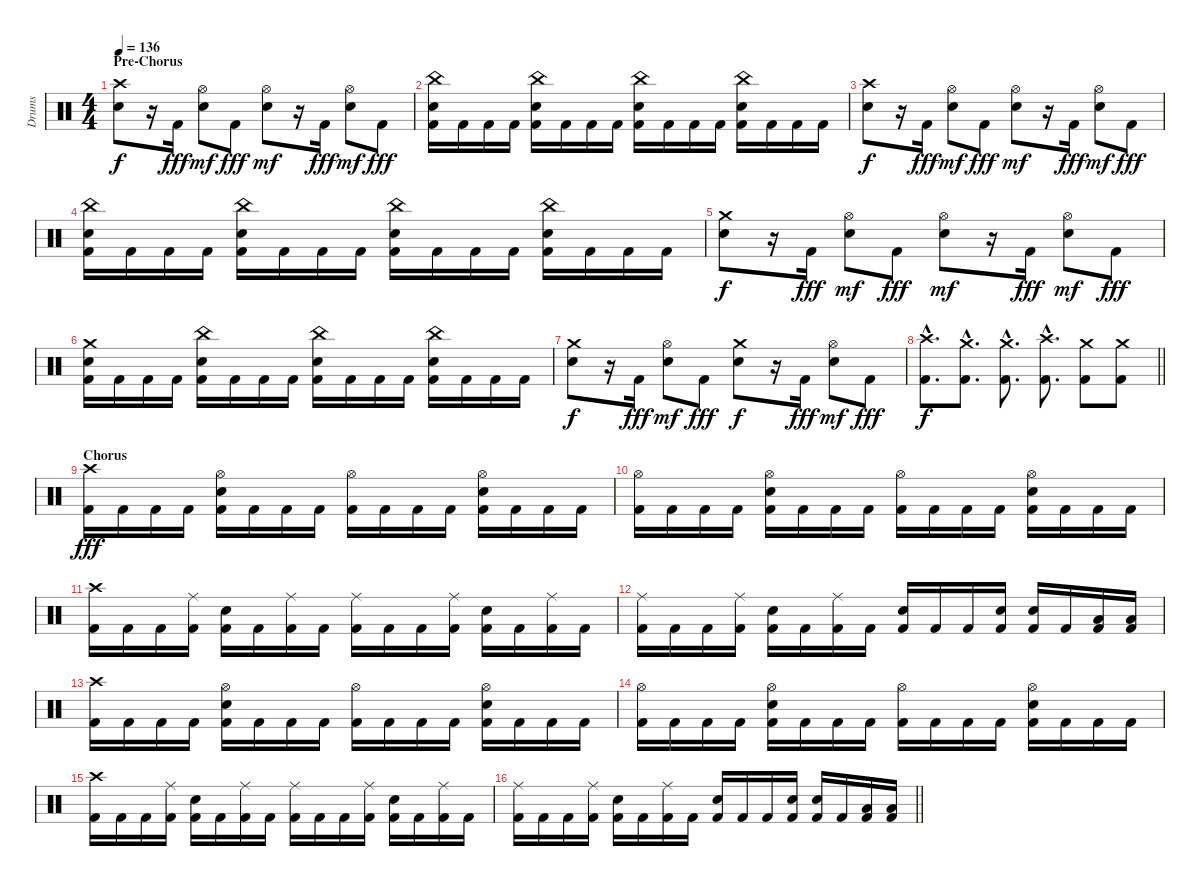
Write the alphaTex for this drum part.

\track ("Drums" "Drums") {instrument percussion}
\staff {score}
\articulation defaults
\ts (4 4)
\section ("" "Pre-Chorus")
\tempo 136
\clef neutral
\ks c
("Crash high (hit)" "Electric Snare (hit)").8{dy f} r.16 "Kick (hit) 2".16{dy fff} ("Hi-Hat (open)" "Electric Snare (hit)").8{dy mf} "Kick (hit) 2".8{dy fff} ("Hi-Hat (open)" "Electric Snare (hit)").8{dy mf} r.16 "Kick (hit) 2".16{dy fff} ("Hi-Hat (open)" "Electric Snare (hit)").8{dy mf} "Kick (hit) 2".8{dy fff} |
("China (hit)" "Electric Snare (hit)" "Kick (hit) 2").16 "Kick (hit) 2".16 "Kick (hit) 2".16 "Kick (hit) 2".16 ("China (hit)" "Electric Snare (hit)" "Kick (hit) 2").16 "Kick (hit) 2".16 "Kick (hit) 2".16 "Kick (hit) 2".16 ("China (hit)" "Electric Snare (hit)" "Kick (hit) 2").16 "Kick (hit) 2".16 "Kick (hit) 2".16 "Kick (hit) 2".16 ("China (hit)" "Electric Snare (hit)" "Kick (hit) 2").16 "Kick (hit) 2".16 "Kick (hit) 2".16 "Kick (hit) 2".16 |
("Crash high (hit)" "Electric Snare (hit)").8{dy f} r.16 "Kick (hit) 2".16{dy fff} ("Hi-Hat (open)" "Electric Snare (hit)").8{dy mf} "Kick (hit) 2".8{dy fff} ("Hi-Hat (open)" "Electric Snare (hit)").8{dy mf} r.16 "Kick (hit) 2".16{dy fff} ("Hi-Hat (open)" "Electric Snare (hit)").8{dy mf} "Kick (hit) 2".8{dy fff} |
("China (hit)" "Electric Snare (hit)" "Kick (hit) 2").16 "Kick (hit) 2".16 "Kick (hit) 2".16 "Kick (hit) 2".16 ("China (hit)" "Electric Snare (hit)" "Kick (hit) 2").16 "Kick (hit) 2".16 "Kick (hit) 2".16 "Kick (hit) 2".16 ("China (hit)" "Electric Snare (hit)" "Kick (hit) 2").16 "Kick (hit) 2".16 "Kick (hit) 2".16 "Kick (hit) 2".16 ("China (hit)" "Electric Snare (hit)" "Kick (hit) 2").16 "Kick (hit) 2".16 "Kick (hit) 2".16 "Kick (hit) 2".16 |
("Crash medium (hit)" "Electric Snare (hit)").8{dy f} r.16 "Kick (hit) 2".16{dy fff} ("Hi-Hat (open)" "Electric Snare (hit)").8{dy mf} "Kick (hit) 2".8{dy fff} ("Hi-Hat (open)" "Electric Snare (hit)").8{dy mf} r.16 "Kick (hit) 2".16{dy fff} ("Hi-Hat (open)" "Electric Snare (hit)").8{dy mf} "Kick (hit) 2".8{dy fff} |
("Crash medium (hit)" "Electric Snare (hit)" "Kick (hit) 2").16 "Kick (hit) 2".16 "Kick (hit) 2".16 "Kick (hit) 2".16 ("China (hit)" "Electric Snare (hit)" "Kick (hit) 2").16 "Kick (hit) 2".16 "Kick (hit) 2".16 "Kick (hit) 2".16 ("China (hit)" "Electric Snare (hit)" "Kick (hit) 2").16 "Kick (hit) 2".16 "Kick (hit) 2".16 "Kick (hit) 2".16 ("China (hit)" "Electric Snare (hit)" "Kick (hit) 2").16 "Kick (hit) 2".16 "Kick (hit) 2".16 "Kick (hit) 2".16 |
("Crash medium (hit)" "Electric Snare (hit)").8{dy f} r.16 "Kick (hit) 2".16{dy fff} ("Hi-Hat (open)" "Electric Snare (hit)").8{dy mf} "Kick (hit) 2".8{dy fff} ("Crash medium (hit)" "Electric Snare (hit)").8{dy f} r.16 "Kick (hit) 2".16{dy fff} ("Hi-Hat (open)" "Electric Snare (hit)").8{dy mf} "Kick (hit) 2".8{dy fff} |
\barLineRight lightlight
("Crash high (hit)"{hac} "Kick (hit) 2"{hac}).8{d dy f} ("Crash medium (hit)"{hac} "Kick (hit) 2"{hac}).8{d} ("Crash medium (hit)"{hac} "Kick (hit) 2"{hac}).8{d} ("Crash high (hit)"{hac} "Kick (hit) 2"{hac}).8{d} ("Crash medium (hit)" "Kick (hit) 2").8 ("Crash medium (hit)" "Kick (hit) 2").8 |
\section ("" "Chorus")
("Crash high (hit)" "Kick (hit) 2").16{dy fff} "Kick (hit) 2".16 "Kick (hit) 2".16 "Kick (hit) 2".16 ("Hi-Hat (open)" "Electric Snare (hit)" "Kick (hit) 2").16 "Kick (hit) 2".16 "Kick (hit) 2".16 "Kick (hit) 2".16 ("Hi-Hat (open)" "Kick (hit) 2").16 "Kick (hit) 2".16 "Kick (hit) 2".16 "Kick (hit) 2".16 ("Hi-Hat (open)" "Electric Snare (hit)" "Kick (hit) 2").16 "Kick (hit) 2".16 "Kick (hit) 2".16 "Kick (hit) 2".16 |
("Hi-Hat (open)" "Kick (hit) 2").16 "Kick (hit) 2".16 "Kick (hit) 2".16 "Kick (hit) 2".16 ("Hi-Hat (open)" "Electric Snare (hit)" "Kick (hit) 2").16 "Kick (hit) 2".16 "Kick (hit) 2".16 "Kick (hit) 2".16 ("Hi-Hat (open)" "Kick (hit) 2").16 "Kick (hit) 2".16 "Kick (hit) 2".16 "Kick (hit) 2".16 ("Hi-Hat (open)" "Electric Snare (hit)" "Kick (hit) 2").16 "Kick (hit) 2".16 "Kick (hit) 2".16 "Kick (hit) 2".16 |
("Crash high (hit)" "Kick (hit) 2").16 "Kick (hit) 2".16 "Kick (hit) 2".16 ("Ride (middle)" "Kick (hit) 2").16 ("Electric Snare (hit)" "Kick (hit) 2").16 "Kick (hit) 2".16 ("Ride (middle)" "Kick (hit) 2").16 "Kick (hit) 2".16 ("Ride (middle)" "Kick (hit) 2").16 "Kick (hit) 2".16 "Kick (hit) 2".16 ("Ride (middle)" "Kick (hit) 2").16 ("Electric Snare (hit)" "Kick (hit) 2").16 "Kick (hit) 2".16 ("Ride (middle)" "Kick (hit) 2").16 "Kick (hit) 2".16 |
("Ride (middle)" "Kick (hit) 2").16 "Kick (hit) 2".16 "Kick (hit) 2".16 ("Ride (middle)" "Kick (hit) 2").16 ("Electric Snare (hit)" "Kick (hit) 2").16 "Kick (hit) 2".16 ("Ride (middle)" "Kick (hit) 2").16 "Kick (hit) 2".16 ("Electric Snare (hit)" "Kick (hit) 2").16 "Kick (hit) 2".16 "Kick (hit) 2".16 ("Electric Snare (hit)" "Kick (hit) 2").16 ("Electric Snare (hit)" "Kick (hit) 2").16 "Kick (hit) 2".16 ("Low Tom (hit)" "Kick (hit) 2").16 ("Low Tom (hit)" "Kick (hit) 2").16 |
("Crash high (hit)" "Kick (hit) 2").16 "Kick (hit) 2".16 "Kick (hit) 2".16 "Kick (hit) 2".16 ("Hi-Hat (open)" "Electric Snare (hit)" "Kick (hit) 2").16 "Kick (hit) 2".16 "Kick (hit) 2".16 "Kick (hit) 2".16 ("Hi-Hat (open)" "Kick (hit) 2").16 "Kick (hit) 2".16 "Kick (hit) 2".16 "Kick (hit) 2".16 ("Hi-Hat (open)" "Electric Snare (hit)" "Kick (hit) 2").16 "Kick (hit) 2".16 "Kick (hit) 2".16 "Kick (hit) 2".16 |
("Hi-Hat (open)" "Kick (hit) 2").16 "Kick (hit) 2".16 "Kick (hit) 2".16 "Kick (hit) 2".16 ("Hi-Hat (open)" "Electric Snare (hit)" "Kick (hit) 2").16 "Kick (hit) 2".16 "Kick (hit) 2".16 "Kick (hit) 2".16 ("Hi-Hat (open)" "Kick (hit) 2").16 "Kick (hit) 2".16 "Kick (hit) 2".16 "Kick (hit) 2".16 ("Hi-Hat (open)" "Electric Snare (hit)" "Kick (hit) 2").16 "Kick (hit) 2".16 "Kick (hit) 2".16 "Kick (hit) 2".16 |
("Crash high (hit)" "Kick (hit) 2").16 "Kick (hit) 2".16 "Kick (hit) 2".16 ("Ride (middle)" "Kick (hit) 2").16 ("Electric Snare (hit)" "Kick (hit) 2").16 "Kick (hit) 2".16 ("Ride (middle)" "Kick (hit) 2").16 "Kick (hit) 2".16 ("Ride (middle)" "Kick (hit) 2").16 "Kick (hit) 2".16 "Kick (hit) 2".16 ("Ride (middle)" "Kick (hit) 2").16 ("Electric Snare (hit)" "Kick (hit) 2").16 "Kick (hit) 2".16 ("Ride (middle)" "Kick (hit) 2").16 "Kick (hit) 2".16 |
\barLineRight lightlight
("Ride (middle)" "Kick (hit) 2").16 "Kick (hit) 2".16 "Kick (hit) 2".16 ("Ride (middle)" "Kick (hit) 2").16 ("Electric Snare (hit)" "Kick (hit) 2").16 "Kick (hit) 2".16 ("Ride (middle)" "Kick (hit) 2").16 "Kick (hit) 2".16 ("Electric Snare (hit)" "Kick (hit) 2").16 "Kick (hit) 2".16 "Kick (hit) 2".16 ("Electric Snare (hit)" "Kick (hit) 2").16 ("Electric Snare (hit)" "Kick (hit) 2").16 "Kick (hit) 2".16 ("Low Tom (hit)" "Kick (hit) 2").16 ("Low Tom (hit)" "Kick (hit) 2").16
